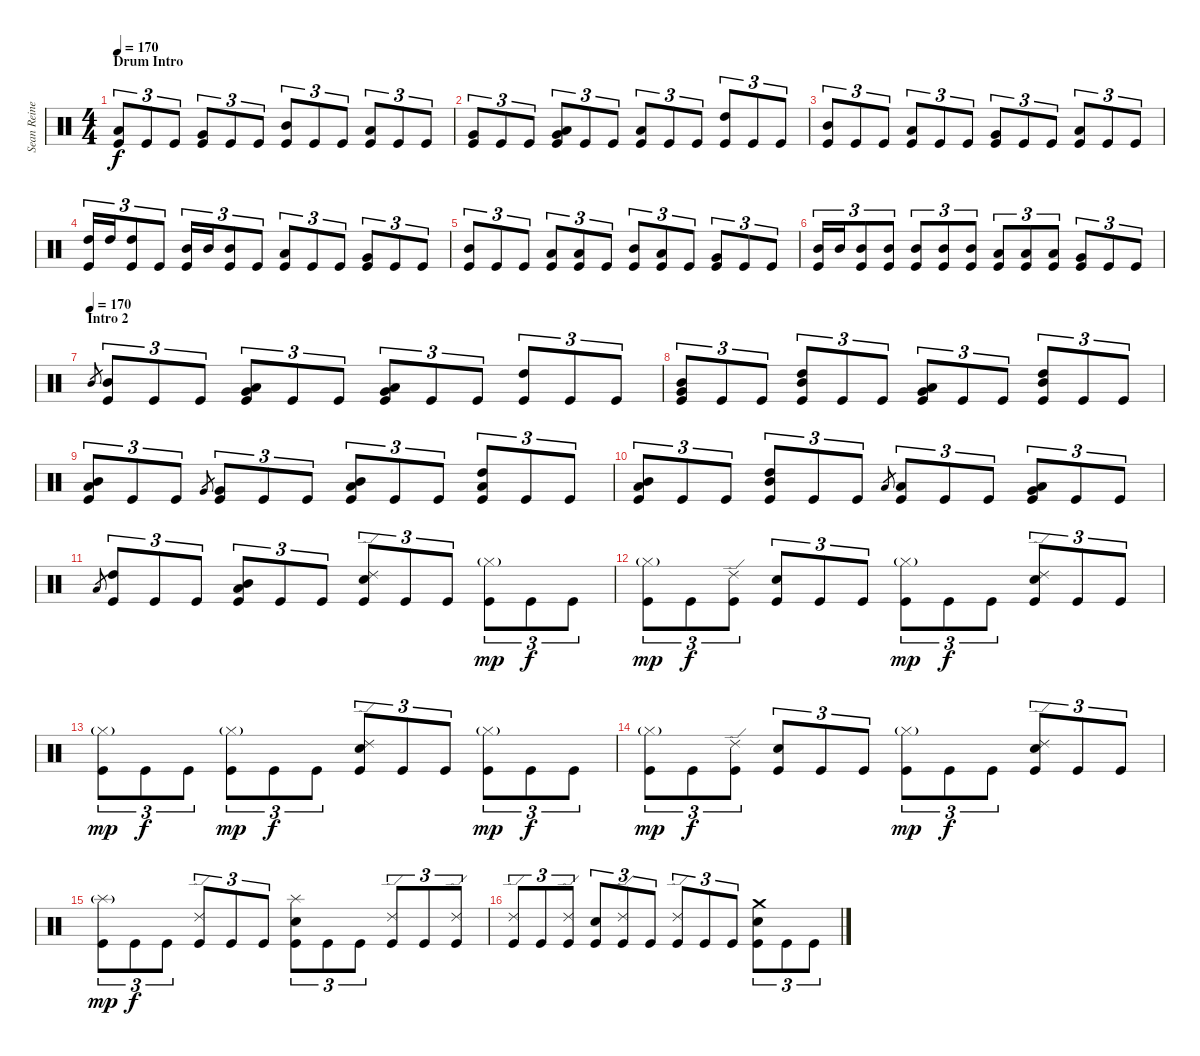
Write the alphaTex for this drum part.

\track ("Sean Reinert " "Sean Reine") {instrument percussion}
\staff {score}
\articulation defaults
\ts (4 4)
\section ("" "Drum Intro")
\tempo 170
\clef neutral
\ks c
("Low Tom (hit)" "Kick (hit)").8{tu (3 2) dy f volume 0} "Kick (hit)".8{tu (3 2) volume 16} "Kick (hit)".8{tu (3 2)} ("Very Low Tom (hit)" "Kick (hit)").8{tu (3 2)} "Kick (hit)".8{tu (3 2)} "Kick (hit)".8{tu (3 2)} ("Mid Tom (hit)" "Kick (hit)").8{tu (3 2)} "Kick (hit)".8{tu (3 2)} "Kick (hit)".8{tu (3 2)} ("Low Tom (hit)" "Kick (hit)").8{tu (3 2)} "Kick (hit)".8{tu (3 2)} "Kick (hit)".8{tu (3 2)} |
("Very Low Tom (hit)" "Kick (hit)").8{tu (3 2)} "Kick (hit)".8{tu (3 2)} "Kick (hit)".8{tu (3 2)} ("Low Floor Tom (hit)" "Very Low Tom (hit)" "Kick (hit)").8{tu (3 2)} "Kick (hit)".8{tu (3 2)} "Kick (hit)".8{tu (3 2)} ("Low Tom (hit)" "Kick (hit)").8{tu (3 2)} "Kick (hit)".8{tu (3 2)} "Kick (hit)".8{tu (3 2)} ("High Tom (hit)" "Kick (hit)").8{tu (3 2)} "Kick (hit)".8{tu (3 2)} "Kick (hit)".8{tu (3 2)} |
("Mid Tom (hit)" "Kick (hit)").8{tu (3 2)} "Kick (hit)".8{tu (3 2)} "Kick (hit)".8{tu (3 2)} ("Low Tom (hit)" "Kick (hit)").8{tu (3 2)} "Kick (hit)".8{tu (3 2)} "Kick (hit)".8{tu (3 2)} ("Very Low Tom (hit)" "Kick (hit)").8{tu (3 2)} "Kick (hit)".8{tu (3 2)} "Kick (hit)".8{tu (3 2)} ("Low Tom (hit)" "Kick (hit)").8{tu (3 2)} "Kick (hit)".8{tu (3 2)} "Kick (hit)".8{tu (3 2)} |
("High Tom (hit)" "Kick (hit)").16{tu (3 2)} "High Tom (hit)".16{tu (3 2)} ("High Tom (hit)" "Kick (hit)").8{tu (3 2)} "Kick (hit)".8{tu (3 2)} ("Mid Tom (hit)" "Kick (hit)").16{tu (3 2)} "Mid Tom (hit)".16{tu (3 2)} ("Mid Tom (hit)" "Kick (hit)").8{tu (3 2)} "Kick (hit)".8{tu (3 2)} ("Low Tom (hit)" "Kick (hit)").8{tu (3 2)} "Kick (hit)".8{tu (3 2)} "Kick (hit)".8{tu (3 2)} ("Very Low Tom (hit)" "Kick (hit)").8{tu (3 2)} "Kick (hit)".8{tu (3 2)} "Kick (hit)".8{tu (3 2)} |
("Mid Tom (hit)" "Kick (hit)").8{tu (3 2)} "Kick (hit)".8{tu (3 2)} "Kick (hit)".8{tu (3 2)} ("Low Tom (hit)" "Kick (hit)").8{tu (3 2)} ("Low Tom (hit)" "Kick (hit)").8{tu (3 2)} "Kick (hit)".8{tu (3 2)} ("Mid Tom (hit)" "Kick (hit)").8{tu (3 2)} ("Low Tom (hit)" "Kick (hit)").8{tu (3 2)} "Kick (hit)".8{tu (3 2)} ("Very Low Tom (hit)" "Kick (hit)").8{tu (3 2)} "Kick (hit)".8{tu (3 2)} "Kick (hit)".8{tu (3 2)} |
("Mid Tom (hit)" "Kick (hit)").16{tu (3 2)} "Mid Tom (hit)".16{tu (3 2)} ("Mid Tom (hit)" "Kick (hit)").8{tu (3 2)} ("Mid Tom (hit)" "Kick (hit)").8{tu (3 2)} ("Mid Tom (hit)" "Kick (hit)").8{tu (3 2)} ("Mid Tom (hit)" "Kick (hit)").8{tu (3 2)} ("Mid Tom (hit)" "Kick (hit)").8{tu (3 2)} ("Low Tom (hit)" "Kick (hit)").8{tu (3 2)} ("Low Tom (hit)" "Kick (hit)").8{tu (3 2)} ("Low Tom (hit)" "Kick (hit)").8{tu (3 2)} ("Very Low Tom (hit)" "Kick (hit)").8{tu (3 2)} "Kick (hit)".8{tu (3 2)} "Kick (hit)".8{tu (3 2)} |
\section ("" "Intro 2")
\tempo (170)
"Mid Tom (hit)".8{gr} ("Mid Tom (hit)" "Kick (hit)").8{tu (3 2)} "Kick (hit)".8{tu (3 2)} "Kick (hit)".8{tu (3 2)} ("Very Low Tom (hit)" "Low Tom (hit)" "Kick (hit)").8{tu (3 2)} "Kick (hit)".8{tu (3 2)} "Kick (hit)".8{tu (3 2)} ("Very Low Tom (hit)" "Low Tom (hit)" "Kick (hit)").8{tu (3 2)} "Kick (hit)".8{tu (3 2)} "Kick (hit)".8{tu (3 2)} ("High Tom (hit)" "Kick (hit)").8{tu (3 2)} "Kick (hit)".8{tu (3 2)} "Kick (hit)".8{tu (3 2)} |
("Mid Tom (hit)" "Very Low Tom (hit)" "Kick (hit)").8{tu (3 2)} "Kick (hit)".8{tu (3 2)} "Kick (hit)".8{tu (3 2)} ("High Tom (hit)" "Mid Tom (hit)" "Kick (hit)").8{tu (3 2)} "Kick (hit)".8{tu (3 2)} "Kick (hit)".8{tu (3 2)} ("Very Low Tom (hit)" "Low Tom (hit)" "Kick (hit)").8{tu (3 2)} "Kick (hit)".8{tu (3 2)} "Kick (hit)".8{tu (3 2)} ("Mid Tom (hit)" "High Tom (hit)" "Kick (hit)").8{tu (3 2)} "Kick (hit)".8{tu (3 2)} "Kick (hit)".8{tu (3 2)} |
("Mid Tom (hit)" "Low Tom (hit)" "Kick (hit)").8{tu (3 2)} "Kick (hit)".8{tu (3 2)} "Kick (hit)".8{tu (3 2)} "Very Low Tom (hit)".8{gr} ("Very Low Tom (hit)" "Kick (hit)").8{tu (3 2)} "Kick (hit)".8{tu (3 2)} "Kick (hit)".8{tu (3 2)} ("Low Tom (hit)" "Mid Tom (hit)" "Kick (hit)").8{tu (3 2)} "Kick (hit)".8{tu (3 2)} "Kick (hit)".8{tu (3 2)} ("High Tom (hit)" "Low Tom (hit)" "Kick (hit)").8{tu (3 2)} "Kick (hit)".8{tu (3 2)} "Kick (hit)".8{tu (3 2)} |
("Mid Tom (hit)" "Low Tom (hit)" "Kick (hit)").8{tu (3 2)} "Kick (hit)".8{tu (3 2)} "Kick (hit)".8{tu (3 2)} ("High Tom (hit)" "Mid Tom (hit)" "Kick (hit)").8{tu (3 2)} "Kick (hit)".8{tu (3 2)} "Kick (hit)".8{tu (3 2)} "Low Tom (hit)".8{gr} ("Low Tom (hit)" "Kick (hit)").8{tu (3 2)} "Kick (hit)".8{tu (3 2)} "Kick (hit)".8{tu (3 2)} ("Low Tom (hit)" "Very Low Tom (hit)" "Kick (hit)").8{tu (3 2)} "Kick (hit)".8{tu (3 2)} "Kick (hit)".8{tu (3 2)} |
"Low Tom (hit)".8{gr} ("High Tom (hit)" "Kick (hit)").8{tu (3 2)} "Kick (hit)".8{tu (3 2)} "Kick (hit)".8{tu (3 2)} ("Low Tom (hit)" "Mid Tom (hit)" "Kick (hit)").8{tu (3 2)} "Kick (hit)".8{tu (3 2)} "Kick (hit)".8{tu (3 2)} ("Ride (edge) 2" "Electric Snare (hit)" "Kick (hit)").8{tu (3 2)} "Kick (hit)".8{tu (3 2)} "Kick (hit)".8{tu (3 2)} ("Hi-Hat (closed)"{g} "Kick (hit)").8{tu (3 2) dy mp} "Kick (hit)".8{tu (3 2) dy f} "Kick (hit)".8{tu (3 2)} |
("Hi-Hat (closed)"{g} "Kick (hit)").8{tu (3 2) dy mp} "Kick (hit)".8{tu (3 2) dy f} ("Ride (edge) 2" "Kick (hit)").8{tu (3 2)} ("Electric Snare (hit)" "Kick (hit)").8{tu (3 2)} "Kick (hit)".8{tu (3 2)} "Kick (hit)".8{tu (3 2)} ("Hi-Hat (closed)"{g} "Kick (hit)").8{tu (3 2) dy mp} "Kick (hit)".8{tu (3 2) dy f} "Kick (hit)".8{tu (3 2)} ("Ride (edge) 2" "Electric Snare (hit)" "Kick (hit)").8{tu (3 2)} "Kick (hit)".8{tu (3 2)} "Kick (hit)".8{tu (3 2)} |
("Hi-Hat (closed)"{g} "Kick (hit)").8{tu (3 2) dy mp} "Kick (hit)".8{tu (3 2) dy f} "Kick (hit)".8{tu (3 2)} ("Hi-Hat (closed)"{g} "Kick (hit)").8{tu (3 2) dy mp} "Kick (hit)".8{tu (3 2) dy f} "Kick (hit)".8{tu (3 2)} ("Ride (edge) 2" "Electric Snare (hit)" "Kick (hit)").8{tu (3 2)} "Kick (hit)".8{tu (3 2)} "Kick (hit)".8{tu (3 2)} ("Hi-Hat (closed)"{g} "Kick (hit)").8{tu (3 2) dy mp} "Kick (hit)".8{tu (3 2) dy f} "Kick (hit)".8{tu (3 2)} |
("Hi-Hat (closed)"{g} "Kick (hit)").8{tu (3 2) dy mp} "Kick (hit)".8{tu (3 2) dy f} ("Ride (edge) 2" "Kick (hit)").8{tu (3 2)} ("Electric Snare (hit)" "Kick (hit)").8{tu (3 2)} "Kick (hit)".8{tu (3 2)} "Kick (hit)".8{tu (3 2)} ("Hi-Hat (closed)"{g} "Kick (hit)").8{tu (3 2) dy mp} "Kick (hit)".8{tu (3 2) dy f} "Kick (hit)".8{tu (3 2)} ("Ride (edge) 2" "Electric Snare (hit)" "Kick (hit)").8{tu (3 2)} "Kick (hit)".8{tu (3 2)} "Kick (hit)".8{tu (3 2)} |
("Splash (hit)"{g} "Kick (hit)").8{tu (3 2) dy mp} "Kick (hit)".8{tu (3 2) dy f} "Kick (hit)".8{tu (3 2)} ("Ride (edge) 2" "Kick (hit)").8{tu (3 2)} "Kick (hit)".8{tu (3 2)} "Kick (hit)".8{tu (3 2)} ("Splash (hit)" "Electric Snare (hit)" "Kick (hit)").8{tu (3 2)} "Kick (hit)".8{tu (3 2)} "Kick (hit)".8{tu (3 2)} ("Ride (edge) 2" "Kick (hit)").8{tu (3 2)} "Kick (hit)".8{tu (3 2)} ("Ride (edge) 2" "Kick (hit)").8{tu (3 2)} |
("Ride (edge) 2" "Kick (hit)").8{tu (3 2)} "Kick (hit)".8{tu (3 2)} ("Ride (edge) 2" "Kick (hit)").8{tu (3 2)} ("Electric Snare (hit)" "Kick (hit)").8{tu (3 2)} ("Ride (edge) 2" "Kick (hit)").8{tu (3 2)} "Kick (hit)".8{tu (3 2)} ("Ride (edge) 2" "Kick (hit)").8{tu (3 2)} "Kick (hit)".8{tu (3 2)} "Kick (hit)".8{tu (3 2)} ("Crash medium (hit)" "Electric Snare (hit)" "Kick (hit)").8{tu (3 2)} "Kick (hit)".8{tu (3 2)} "Kick (hit)".8{tu (3 2)}
